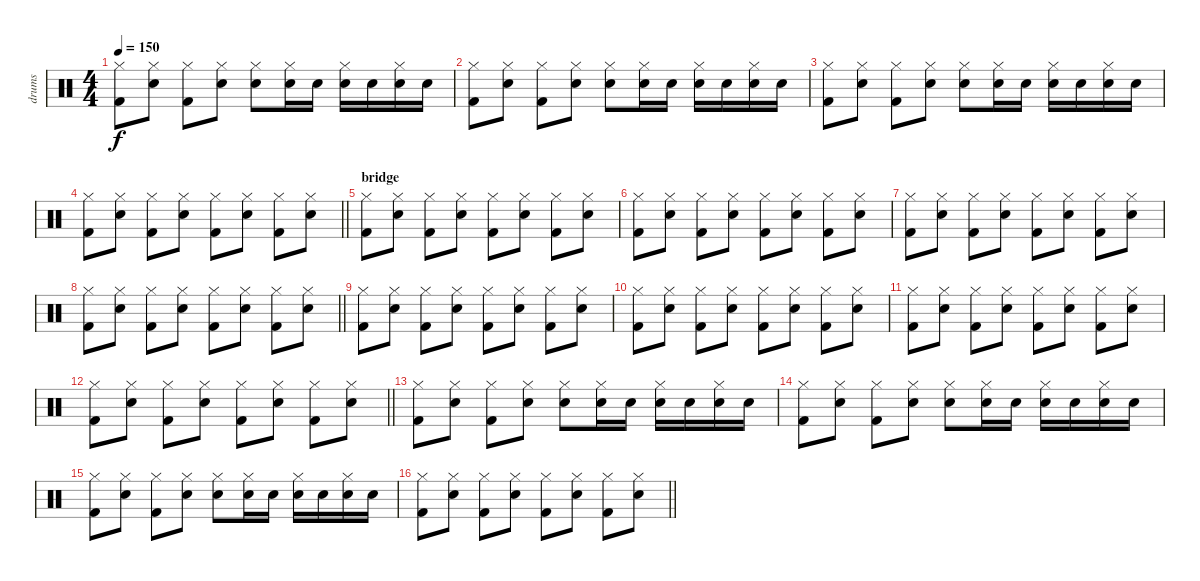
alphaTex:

\track ("drums" "drums") {instrument percussion}
\staff {score}
\articulation defaults
\ts (4 4)
\tempo 150
\clef neutral
\ks c
("Hi-Hat (closed)" "Kick (hit) 2").8{dy f} ("Hi-Hat (closed)" "Snare (hit) 2").8 ("Hi-Hat (closed)" "Kick (hit) 2").8 ("Hi-Hat (closed)" "Snare (hit) 2").8 ("Hi-Hat (closed)" "Snare (hit) 2").8 ("Hi-Hat (closed)" "Snare (hit) 2").16 "Snare (hit) 2".16 ("Hi-Hat (closed)" "Snare (hit) 2").16 "Snare (hit) 2".16 ("Hi-Hat (closed)" "Snare (hit) 2").16 "Snare (hit) 2".16 |
("Hi-Hat (closed)" "Kick (hit) 2").8 ("Hi-Hat (closed)" "Snare (hit) 2").8 ("Hi-Hat (closed)" "Kick (hit) 2").8 ("Hi-Hat (closed)" "Snare (hit) 2").8 ("Hi-Hat (closed)" "Snare (hit) 2").8 ("Hi-Hat (closed)" "Snare (hit) 2").16 "Snare (hit) 2".16 ("Hi-Hat (closed)" "Snare (hit) 2").16 "Snare (hit) 2".16 ("Hi-Hat (closed)" "Snare (hit) 2").16 "Snare (hit) 2".16 |
("Hi-Hat (closed)" "Kick (hit) 2").8 ("Hi-Hat (closed)" "Snare (hit) 2").8 ("Hi-Hat (closed)" "Kick (hit) 2").8 ("Hi-Hat (closed)" "Snare (hit) 2").8 ("Hi-Hat (closed)" "Snare (hit) 2").8 ("Hi-Hat (closed)" "Snare (hit) 2").16 "Snare (hit) 2".16 ("Hi-Hat (closed)" "Snare (hit) 2").16 "Snare (hit) 2".16 ("Hi-Hat (closed)" "Snare (hit) 2").16 "Snare (hit) 2".16 |
\barLineRight lightlight
("Hi-Hat (closed)" "Kick (hit) 2").8 ("Hi-Hat (closed)" "Snare (hit) 2").8 ("Hi-Hat (closed)" "Kick (hit) 2").8 ("Hi-Hat (closed)" "Snare (hit) 2").8 ("Hi-Hat (closed)" "Kick (hit) 2").8 ("Hi-Hat (closed)" "Snare (hit) 2").8 ("Hi-Hat (closed)" "Kick (hit) 2").8 ("Hi-Hat (closed)" "Snare (hit) 2").8 |
\section ("" "bridge")
("Hi-Hat (closed)" "Kick (hit) 2").8 ("Hi-Hat (closed)" "Snare (hit) 2").8 ("Hi-Hat (closed)" "Kick (hit) 2").8 ("Hi-Hat (closed)" "Snare (hit) 2").8 ("Hi-Hat (closed)" "Kick (hit) 2").8 ("Hi-Hat (closed)" "Snare (hit) 2").8 ("Hi-Hat (closed)" "Kick (hit) 2").8 ("Hi-Hat (closed)" "Snare (hit) 2").8 |
("Hi-Hat (closed)" "Kick (hit) 2").8 ("Hi-Hat (closed)" "Snare (hit) 2").8 ("Hi-Hat (closed)" "Kick (hit) 2").8 ("Hi-Hat (closed)" "Snare (hit) 2").8 ("Hi-Hat (closed)" "Kick (hit) 2").8 ("Hi-Hat (closed)" "Snare (hit) 2").8 ("Hi-Hat (closed)" "Kick (hit) 2").8 ("Hi-Hat (closed)" "Snare (hit) 2").8 |
("Hi-Hat (closed)" "Kick (hit) 2").8 ("Hi-Hat (closed)" "Snare (hit) 2").8 ("Hi-Hat (closed)" "Kick (hit) 2").8 ("Hi-Hat (closed)" "Snare (hit) 2").8 ("Hi-Hat (closed)" "Kick (hit) 2").8 ("Hi-Hat (closed)" "Snare (hit) 2").8 ("Hi-Hat (closed)" "Kick (hit) 2").8 ("Hi-Hat (closed)" "Snare (hit) 2").8 |
\barLineRight lightlight
("Hi-Hat (closed)" "Kick (hit) 2").8 ("Hi-Hat (closed)" "Snare (hit) 2").8 ("Hi-Hat (closed)" "Kick (hit) 2").8 ("Hi-Hat (closed)" "Snare (hit) 2").8 ("Hi-Hat (closed)" "Kick (hit) 2").8 ("Hi-Hat (closed)" "Snare (hit) 2").8 ("Hi-Hat (closed)" "Kick (hit) 2").8 ("Hi-Hat (closed)" "Snare (hit) 2").8 |
\section ("" "")
("Hi-Hat (closed)" "Kick (hit) 2").8 ("Hi-Hat (closed)" "Snare (hit) 2").8 ("Hi-Hat (closed)" "Kick (hit) 2").8 ("Hi-Hat (closed)" "Snare (hit) 2").8 ("Hi-Hat (closed)" "Kick (hit) 2").8 ("Hi-Hat (closed)" "Snare (hit) 2").8 ("Hi-Hat (closed)" "Kick (hit) 2").8 ("Hi-Hat (closed)" "Snare (hit) 2").8 |
("Hi-Hat (closed)" "Kick (hit) 2").8 ("Hi-Hat (closed)" "Snare (hit) 2").8 ("Hi-Hat (closed)" "Kick (hit) 2").8 ("Hi-Hat (closed)" "Snare (hit) 2").8 ("Hi-Hat (closed)" "Kick (hit) 2").8 ("Hi-Hat (closed)" "Snare (hit) 2").8 ("Hi-Hat (closed)" "Kick (hit) 2").8 ("Hi-Hat (closed)" "Snare (hit) 2").8 |
("Hi-Hat (closed)" "Kick (hit) 2").8 ("Hi-Hat (closed)" "Snare (hit) 2").8 ("Hi-Hat (closed)" "Kick (hit) 2").8 ("Hi-Hat (closed)" "Snare (hit) 2").8 ("Hi-Hat (closed)" "Kick (hit) 2").8 ("Hi-Hat (closed)" "Snare (hit) 2").8 ("Hi-Hat (closed)" "Kick (hit) 2").8 ("Hi-Hat (closed)" "Snare (hit) 2").8 |
\barLineRight lightlight
("Hi-Hat (closed)" "Kick (hit) 2").8 ("Hi-Hat (closed)" "Snare (hit) 2").8 ("Hi-Hat (closed)" "Kick (hit) 2").8 ("Hi-Hat (closed)" "Snare (hit) 2").8 ("Hi-Hat (closed)" "Kick (hit) 2").8 ("Hi-Hat (closed)" "Snare (hit) 2").8 ("Hi-Hat (closed)" "Kick (hit) 2").8 ("Hi-Hat (closed)" "Snare (hit) 2").8 |
\section ("" "")
("Hi-Hat (closed)" "Kick (hit) 2").8 ("Hi-Hat (closed)" "Snare (hit) 2").8 ("Hi-Hat (closed)" "Kick (hit) 2").8 ("Hi-Hat (closed)" "Snare (hit) 2").8 ("Hi-Hat (closed)" "Snare (hit) 2").8 ("Hi-Hat (closed)" "Snare (hit) 2").16 "Snare (hit) 2".16 ("Hi-Hat (closed)" "Snare (hit) 2").16 "Snare (hit) 2".16 ("Hi-Hat (closed)" "Snare (hit) 2").16 "Snare (hit) 2".16 |
("Hi-Hat (closed)" "Kick (hit) 2").8 ("Hi-Hat (closed)" "Snare (hit) 2").8 ("Hi-Hat (closed)" "Kick (hit) 2").8 ("Hi-Hat (closed)" "Snare (hit) 2").8 ("Hi-Hat (closed)" "Snare (hit) 2").8 ("Hi-Hat (closed)" "Snare (hit) 2").16 "Snare (hit) 2".16 ("Hi-Hat (closed)" "Snare (hit) 2").16 "Snare (hit) 2".16 ("Hi-Hat (closed)" "Snare (hit) 2").16 "Snare (hit) 2".16 |
("Hi-Hat (closed)" "Kick (hit) 2").8 ("Hi-Hat (closed)" "Snare (hit) 2").8 ("Hi-Hat (closed)" "Kick (hit) 2").8 ("Hi-Hat (closed)" "Snare (hit) 2").8 ("Hi-Hat (closed)" "Snare (hit) 2").8 ("Hi-Hat (closed)" "Snare (hit) 2").16 "Snare (hit) 2".16 ("Hi-Hat (closed)" "Snare (hit) 2").16 "Snare (hit) 2".16 ("Hi-Hat (closed)" "Snare (hit) 2").16 "Snare (hit) 2".16 |
\barLineRight lightlight
("Hi-Hat (closed)" "Kick (hit) 2").8 ("Hi-Hat (closed)" "Snare (hit) 2").8 ("Hi-Hat (closed)" "Kick (hit) 2").8 ("Hi-Hat (closed)" "Snare (hit) 2").8 ("Hi-Hat (closed)" "Kick (hit) 2").8 ("Hi-Hat (closed)" "Snare (hit) 2").8 ("Hi-Hat (closed)" "Kick (hit) 2").8 ("Hi-Hat (closed)" "Snare (hit) 2").8
